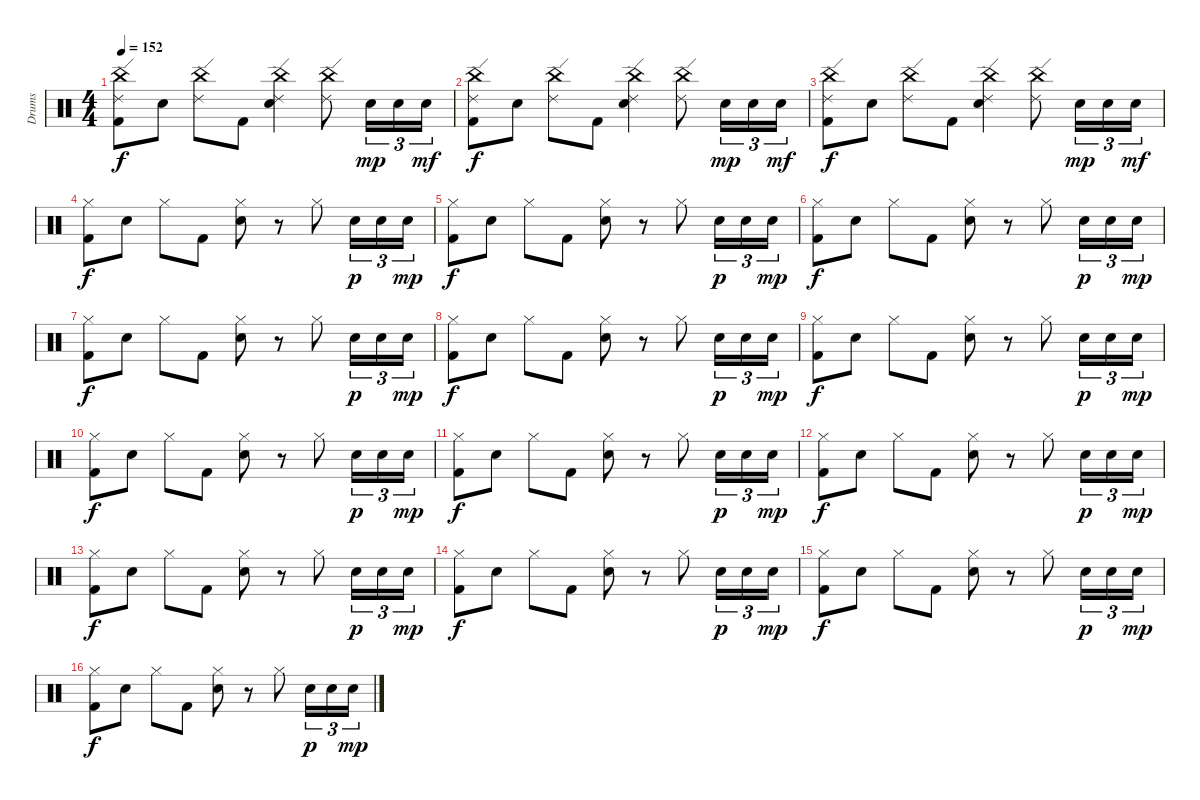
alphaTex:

\track ("Drums" "Drums") {instrument percussion}
\staff {score}
\articulation defaults
\ts (4 4)
\tempo 152
\clef neutral
\ks c
("China (hit)" "Ride (edge) 2" "Kick (hit) 2").8{dy f} "Snare (hit) 2".8 ("China (hit)" "Ride (edge) 2").8 "Kick (hit) 2".8 ("China (hit)" "Ride (edge) 2" "Snare (hit) 2").4 ("China (hit)" "Ride (edge) 2").8 "Snare (hit) 2".16{tu (3 2) dy mp} "Snare (hit) 2".16{tu (3 2)} "Snare (hit) 2".16{tu (3 2) dy mf} |
("China (hit)" "Ride (edge) 2" "Kick (hit) 2").8{dy f} "Snare (hit) 2".8 ("China (hit)" "Ride (edge) 2").8 "Kick (hit) 2".8 ("China (hit)" "Ride (edge) 2" "Snare (hit) 2").4 ("China (hit)" "Ride (edge) 2").8 "Snare (hit) 2".16{tu (3 2) dy mp} "Snare (hit) 2".16{tu (3 2)} "Snare (hit) 2".16{tu (3 2) dy mf} |
("China (hit)" "Ride (edge) 2" "Kick (hit) 2").8{dy f} "Snare (hit) 2".8 ("China (hit)" "Ride (edge) 2").8 "Kick (hit) 2".8 ("China (hit)" "Ride (edge) 2" "Snare (hit) 2").4 ("China (hit)" "Ride (edge) 2").8 "Snare (hit) 2".16{tu (3 2) dy mp} "Snare (hit) 2".16{tu (3 2)} "Snare (hit) 2".16{tu (3 2) dy mf} |
("Hi-Hat (closed)" "Kick (hit) 2").8{dy f volume 11} "Snare (hit) 2".8 "Hi-Hat (closed)".8 "Kick (hit) 2".8 ("Hi-Hat (closed)" "Snare (hit) 2").8 r.8 "Hi-Hat (closed)".8 "Snare (hit) 2".16{tu (3 2) dy p} "Snare (hit) 2".16{tu (3 2)} "Snare (hit) 2".16{tu (3 2) dy mp} |
("Hi-Hat (closed)" "Kick (hit) 2").8{dy f} "Snare (hit) 2".8 "Hi-Hat (closed)".8 "Kick (hit) 2".8 ("Hi-Hat (closed)" "Snare (hit) 2").8 r.8 "Hi-Hat (closed)".8 "Snare (hit) 2".16{tu (3 2) dy p} "Snare (hit) 2".16{tu (3 2)} "Snare (hit) 2".16{tu (3 2) dy mp} |
("Hi-Hat (closed)" "Kick (hit) 2").8{dy f} "Snare (hit) 2".8 "Hi-Hat (closed)".8 "Kick (hit) 2".8 ("Hi-Hat (closed)" "Snare (hit) 2").8 r.8 "Hi-Hat (closed)".8 "Snare (hit) 2".16{tu (3 2) dy p} "Snare (hit) 2".16{tu (3 2)} "Snare (hit) 2".16{tu (3 2) dy mp} |
("Hi-Hat (closed)" "Kick (hit) 2").8{dy f} "Snare (hit) 2".8 "Hi-Hat (closed)".8 "Kick (hit) 2".8 ("Hi-Hat (closed)" "Snare (hit) 2").8 r.8 "Hi-Hat (closed)".8 "Snare (hit) 2".16{tu (3 2) dy p} "Snare (hit) 2".16{tu (3 2)} "Snare (hit) 2".16{tu (3 2) dy mp} |
("Hi-Hat (closed)" "Kick (hit) 2").8{dy f volume 11} "Snare (hit) 2".8 "Hi-Hat (closed)".8 "Kick (hit) 2".8 ("Hi-Hat (closed)" "Snare (hit) 2").8 r.8 "Hi-Hat (closed)".8 "Snare (hit) 2".16{tu (3 2) dy p} "Snare (hit) 2".16{tu (3 2)} "Snare (hit) 2".16{tu (3 2) dy mp} |
("Hi-Hat (closed)" "Kick (hit) 2").8{dy f} "Snare (hit) 2".8 "Hi-Hat (closed)".8 "Kick (hit) 2".8 ("Hi-Hat (closed)" "Snare (hit) 2").8 r.8 "Hi-Hat (closed)".8 "Snare (hit) 2".16{tu (3 2) dy p} "Snare (hit) 2".16{tu (3 2)} "Snare (hit) 2".16{tu (3 2) dy mp} |
("Hi-Hat (closed)" "Kick (hit) 2").8{dy f} "Snare (hit) 2".8 "Hi-Hat (closed)".8 "Kick (hit) 2".8 ("Hi-Hat (closed)" "Snare (hit) 2").8 r.8 "Hi-Hat (closed)".8 "Snare (hit) 2".16{tu (3 2) dy p} "Snare (hit) 2".16{tu (3 2)} "Snare (hit) 2".16{tu (3 2) dy mp} |
("Hi-Hat (closed)" "Kick (hit) 2").8{dy f} "Snare (hit) 2".8 "Hi-Hat (closed)".8 "Kick (hit) 2".8 ("Hi-Hat (closed)" "Snare (hit) 2").8 r.8 "Hi-Hat (closed)".8 "Snare (hit) 2".16{tu (3 2) dy p} "Snare (hit) 2".16{tu (3 2)} "Snare (hit) 2".16{tu (3 2) dy mp} |
("Hi-Hat (closed)" "Kick (hit) 2").8{dy f volume 11} "Snare (hit) 2".8 "Hi-Hat (closed)".8 "Kick (hit) 2".8 ("Hi-Hat (closed)" "Snare (hit) 2").8 r.8 "Hi-Hat (closed)".8 "Snare (hit) 2".16{tu (3 2) dy p} "Snare (hit) 2".16{tu (3 2)} "Snare (hit) 2".16{tu (3 2) dy mp} |
("Hi-Hat (closed)" "Kick (hit) 2").8{dy f} "Snare (hit) 2".8 "Hi-Hat (closed)".8 "Kick (hit) 2".8 ("Hi-Hat (closed)" "Snare (hit) 2").8 r.8 "Hi-Hat (closed)".8 "Snare (hit) 2".16{tu (3 2) dy p} "Snare (hit) 2".16{tu (3 2)} "Snare (hit) 2".16{tu (3 2) dy mp} |
("Hi-Hat (closed)" "Kick (hit) 2").8{dy f} "Snare (hit) 2".8 "Hi-Hat (closed)".8 "Kick (hit) 2".8 ("Hi-Hat (closed)" "Snare (hit) 2").8 r.8 "Hi-Hat (closed)".8 "Snare (hit) 2".16{tu (3 2) dy p} "Snare (hit) 2".16{tu (3 2)} "Snare (hit) 2".16{tu (3 2) dy mp} |
("Hi-Hat (closed)" "Kick (hit) 2").8{dy f} "Snare (hit) 2".8 "Hi-Hat (closed)".8 "Kick (hit) 2".8 ("Hi-Hat (closed)" "Snare (hit) 2").8 r.8 "Hi-Hat (closed)".8 "Snare (hit) 2".16{tu (3 2) dy p} "Snare (hit) 2".16{tu (3 2)} "Snare (hit) 2".16{tu (3 2) dy mp} |
("Hi-Hat (closed)" "Kick (hit) 2").8{dy f volume 11} "Snare (hit) 2".8 "Hi-Hat (closed)".8 "Kick (hit) 2".8 ("Hi-Hat (closed)" "Snare (hit) 2").8 r.8 "Hi-Hat (closed)".8 "Snare (hit) 2".16{tu (3 2) dy p} "Snare (hit) 2".16{tu (3 2)} "Snare (hit) 2".16{tu (3 2) dy mp}
